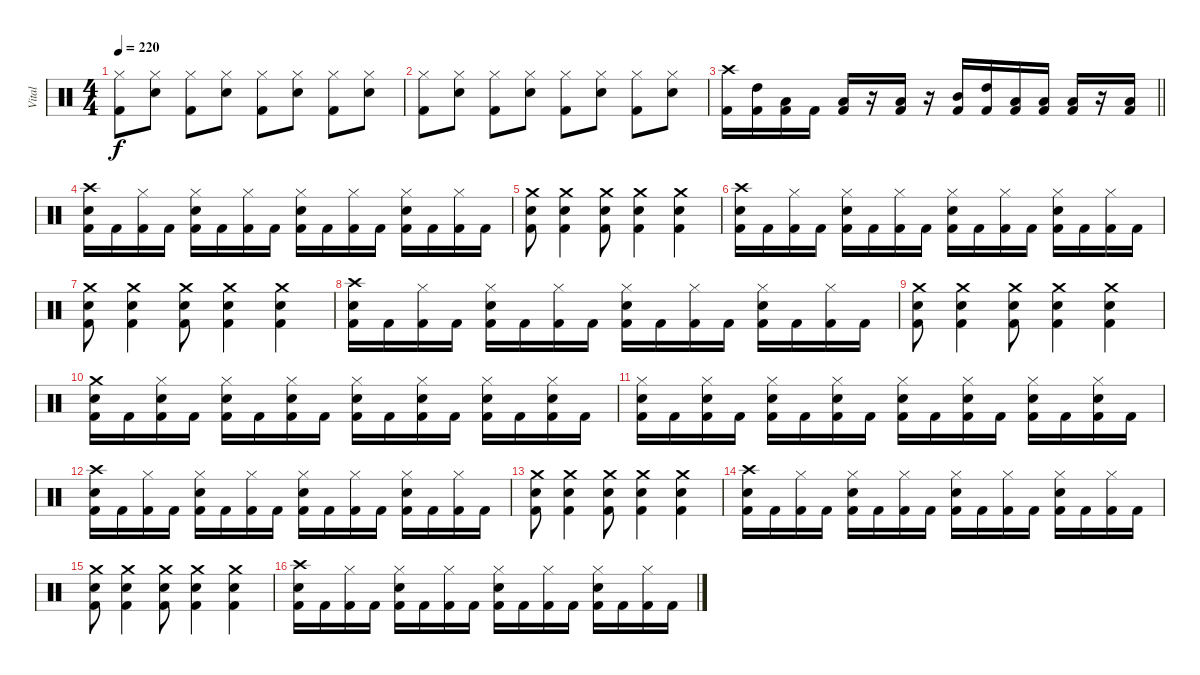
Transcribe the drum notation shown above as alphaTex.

\track ("Vital" "Vital") {instrument percussion}
\staff {score}
\articulation defaults
\ts (4 4)
\tempo 220
\clef neutral
\ks c
("Hi-Hat (closed)" "Kick (hit) 2").8{dy f} ("Hi-Hat (closed)" "Snare (hit) 2").8 ("Hi-Hat (closed)" "Kick (hit) 2").8 ("Hi-Hat (closed)" "Snare (hit) 2").8 ("Hi-Hat (closed)" "Kick (hit) 2").8 ("Hi-Hat (closed)" "Snare (hit) 2").8 ("Hi-Hat (closed)" "Kick (hit) 2").8 ("Hi-Hat (closed)" "Snare (hit) 2").8 |
("Hi-Hat (closed)" "Kick (hit) 2").8 ("Hi-Hat (closed)" "Snare (hit) 2").8 ("Hi-Hat (closed)" "Kick (hit) 2").8 ("Hi-Hat (closed)" "Snare (hit) 2").8 ("Hi-Hat (closed)" "Kick (hit) 2").8 ("Hi-Hat (closed)" "Snare (hit) 2").8 ("Hi-Hat (closed)" "Kick (hit) 2").8 ("Hi-Hat (closed)" "Snare (hit) 2").8 |
\barLineRight lightlight
("Crash high (hit)" "Kick (hit) 2").16 ("High Tom (hit)" "Kick (hit) 2").16 ("Low Tom (hit)" "Kick (hit) 2").16 "Kick (hit) 2".16 ("Low Tom (hit)" "Kick (hit) 2").16 r.16 ("Low Tom (hit)" "Kick (hit) 2").16 r.16 ("Mid Tom (hit)" "Kick (hit) 2").16 ("High Tom (hit)" "Kick (hit) 2").16 ("Low Tom (hit)" "Kick (hit) 2").16 ("Low Tom (hit)" "Kick (hit) 2").16 ("Low Tom (hit)" "Kick (hit) 2").16 r.16 ("Low Tom (hit)" "Kick (hit) 2").16 |
("Crash high (hit)" "Snare (hit) 2" "Kick (hit) 2").16 "Kick (hit) 2".16 ("Hi-Hat (closed)" "Kick (hit) 2").16 "Kick (hit) 2".16 ("Hi-Hat (closed)" "Snare (hit) 2" "Kick (hit) 2").16 "Kick (hit) 2".16 ("Hi-Hat (closed)" "Kick (hit) 2").16 "Kick (hit) 2".16 ("Hi-Hat (closed)" "Snare (hit) 2" "Kick (hit) 2").16 "Kick (hit) 2".16 ("Hi-Hat (closed)" "Kick (hit) 2").16 "Kick (hit) 2".16 ("Hi-Hat (closed)" "Snare (hit) 2" "Kick (hit) 2").16 "Kick (hit) 2".16 ("Hi-Hat (closed)" "Kick (hit) 2").16 "Kick (hit) 2".16 |
("Crash medium (hit)" "Snare (hit) 2" "Kick (hit) 2").8 ("Crash medium (hit)" "Snare (hit) 2" "Kick (hit) 2").4 ("Crash medium (hit)" "Snare (hit) 2" "Kick (hit) 2").8 ("Crash medium (hit)" "Snare (hit) 2" "Kick (hit) 2").4 ("Crash medium (hit)" "Snare (hit) 2" "Kick (hit) 2").4 |
("Crash high (hit)" "Snare (hit) 2" "Kick (hit) 2").16 "Kick (hit) 2".16 ("Hi-Hat (closed)" "Kick (hit) 2").16 "Kick (hit) 2".16 ("Hi-Hat (closed)" "Snare (hit) 2" "Kick (hit) 2").16 "Kick (hit) 2".16 ("Hi-Hat (closed)" "Kick (hit) 2").16 "Kick (hit) 2".16 ("Hi-Hat (closed)" "Snare (hit) 2" "Kick (hit) 2").16 "Kick (hit) 2".16 ("Hi-Hat (closed)" "Kick (hit) 2").16 "Kick (hit) 2".16 ("Hi-Hat (closed)" "Snare (hit) 2" "Kick (hit) 2").16 "Kick (hit) 2".16 ("Hi-Hat (closed)" "Kick (hit) 2").16 "Kick (hit) 2".16 |
("Crash medium (hit)" "Snare (hit) 2" "Kick (hit) 2").8 ("Crash medium (hit)" "Snare (hit) 2" "Kick (hit) 2").4 ("Crash medium (hit)" "Snare (hit) 2" "Kick (hit) 2").8 ("Crash medium (hit)" "Snare (hit) 2" "Kick (hit) 2").4 ("Crash medium (hit)" "Snare (hit) 2" "Kick (hit) 2").4 |
("Crash high (hit)" "Snare (hit) 2" "Kick (hit) 2").16 "Kick (hit) 2".16 ("Hi-Hat (closed)" "Kick (hit) 2").16 "Kick (hit) 2".16 ("Hi-Hat (closed)" "Snare (hit) 2" "Kick (hit) 2").16 "Kick (hit) 2".16 ("Hi-Hat (closed)" "Kick (hit) 2").16 "Kick (hit) 2".16 ("Hi-Hat (closed)" "Snare (hit) 2" "Kick (hit) 2").16 "Kick (hit) 2".16 ("Hi-Hat (closed)" "Kick (hit) 2").16 "Kick (hit) 2".16 ("Hi-Hat (closed)" "Snare (hit) 2" "Kick (hit) 2").16 "Kick (hit) 2".16 ("Hi-Hat (closed)" "Kick (hit) 2").16 "Kick (hit) 2".16 |
("Crash medium (hit)" "Snare (hit) 2" "Kick (hit) 2").8 ("Crash medium (hit)" "Snare (hit) 2" "Kick (hit) 2").4 ("Crash medium (hit)" "Snare (hit) 2" "Kick (hit) 2").8 ("Crash medium (hit)" "Snare (hit) 2" "Kick (hit) 2").4 ("Crash medium (hit)" "Snare (hit) 2" "Kick (hit) 2").4 |
("Crash medium (hit)" "Snare (hit) 2" "Kick (hit) 2").16 "Kick (hit) 2".16 ("Hi-Hat (closed)" "Snare (hit) 2" "Kick (hit) 2").16 "Kick (hit) 2".16 ("Hi-Hat (closed)" "Snare (hit) 2" "Kick (hit) 2").16 "Kick (hit) 2".16 ("Hi-Hat (closed)" "Snare (hit) 2" "Kick (hit) 2").16 "Kick (hit) 2".16 ("Hi-Hat (closed)" "Snare (hit) 2" "Kick (hit) 2").16 "Kick (hit) 2".16 ("Hi-Hat (closed)" "Snare (hit) 2" "Kick (hit) 2").16 "Kick (hit) 2".16 ("Hi-Hat (closed)" "Snare (hit) 2" "Kick (hit) 2").16 "Kick (hit) 2".16 ("Hi-Hat (closed)" "Snare (hit) 2" "Kick (hit) 2").16 "Kick (hit) 2".16 |
("Hi-Hat (closed)" "Snare (hit) 2" "Kick (hit) 2").16 "Kick (hit) 2".16 ("Hi-Hat (closed)" "Snare (hit) 2" "Kick (hit) 2").16 "Kick (hit) 2".16 ("Hi-Hat (closed)" "Snare (hit) 2" "Kick (hit) 2").16 "Kick (hit) 2".16 ("Hi-Hat (closed)" "Snare (hit) 2" "Kick (hit) 2").16 "Kick (hit) 2".16 ("Hi-Hat (closed)" "Snare (hit) 2" "Kick (hit) 2").16 "Kick (hit) 2".16 ("Hi-Hat (closed)" "Snare (hit) 2" "Kick (hit) 2").16 "Kick (hit) 2".16 ("Hi-Hat (closed)" "Snare (hit) 2" "Kick (hit) 2").16 "Kick (hit) 2".16 ("Hi-Hat (closed)" "Snare (hit) 2" "Kick (hit) 2").16 "Kick (hit) 2".16 |
("Crash high (hit)" "Snare (hit) 2" "Kick (hit) 2").16 "Kick (hit) 2".16 ("Hi-Hat (closed)" "Kick (hit) 2").16 "Kick (hit) 2".16 ("Hi-Hat (closed)" "Snare (hit) 2" "Kick (hit) 2").16 "Kick (hit) 2".16 ("Hi-Hat (closed)" "Kick (hit) 2").16 "Kick (hit) 2".16 ("Hi-Hat (closed)" "Snare (hit) 2" "Kick (hit) 2").16 "Kick (hit) 2".16 ("Hi-Hat (closed)" "Kick (hit) 2").16 "Kick (hit) 2".16 ("Hi-Hat (closed)" "Snare (hit) 2" "Kick (hit) 2").16 "Kick (hit) 2".16 ("Hi-Hat (closed)" "Kick (hit) 2").16 "Kick (hit) 2".16 |
("Crash medium (hit)" "Snare (hit) 2" "Kick (hit) 2").8 ("Crash medium (hit)" "Snare (hit) 2" "Kick (hit) 2").4 ("Crash medium (hit)" "Snare (hit) 2" "Kick (hit) 2").8 ("Crash medium (hit)" "Snare (hit) 2" "Kick (hit) 2").4 ("Crash medium (hit)" "Snare (hit) 2" "Kick (hit) 2").4 |
("Crash high (hit)" "Snare (hit) 2" "Kick (hit) 2").16 "Kick (hit) 2".16 ("Hi-Hat (closed)" "Kick (hit) 2").16 "Kick (hit) 2".16 ("Hi-Hat (closed)" "Snare (hit) 2" "Kick (hit) 2").16 "Kick (hit) 2".16 ("Hi-Hat (closed)" "Kick (hit) 2").16 "Kick (hit) 2".16 ("Hi-Hat (closed)" "Snare (hit) 2" "Kick (hit) 2").16 "Kick (hit) 2".16 ("Hi-Hat (closed)" "Kick (hit) 2").16 "Kick (hit) 2".16 ("Hi-Hat (closed)" "Snare (hit) 2" "Kick (hit) 2").16 "Kick (hit) 2".16 ("Hi-Hat (closed)" "Kick (hit) 2").16 "Kick (hit) 2".16 |
("Crash medium (hit)" "Snare (hit) 2" "Kick (hit) 2").8 ("Crash medium (hit)" "Snare (hit) 2" "Kick (hit) 2").4 ("Crash medium (hit)" "Snare (hit) 2" "Kick (hit) 2").8 ("Crash medium (hit)" "Snare (hit) 2" "Kick (hit) 2").4 ("Crash medium (hit)" "Snare (hit) 2" "Kick (hit) 2").4 |
("Crash high (hit)" "Snare (hit) 2" "Kick (hit) 2").16 "Kick (hit) 2".16 ("Hi-Hat (closed)" "Kick (hit) 2").16 "Kick (hit) 2".16 ("Hi-Hat (closed)" "Snare (hit) 2" "Kick (hit) 2").16 "Kick (hit) 2".16 ("Hi-Hat (closed)" "Kick (hit) 2").16 "Kick (hit) 2".16 ("Hi-Hat (closed)" "Snare (hit) 2" "Kick (hit) 2").16 "Kick (hit) 2".16 ("Hi-Hat (closed)" "Kick (hit) 2").16 "Kick (hit) 2".16 ("Hi-Hat (closed)" "Snare (hit) 2" "Kick (hit) 2").16 "Kick (hit) 2".16 ("Hi-Hat (closed)" "Kick (hit) 2").16 "Kick (hit) 2".16
